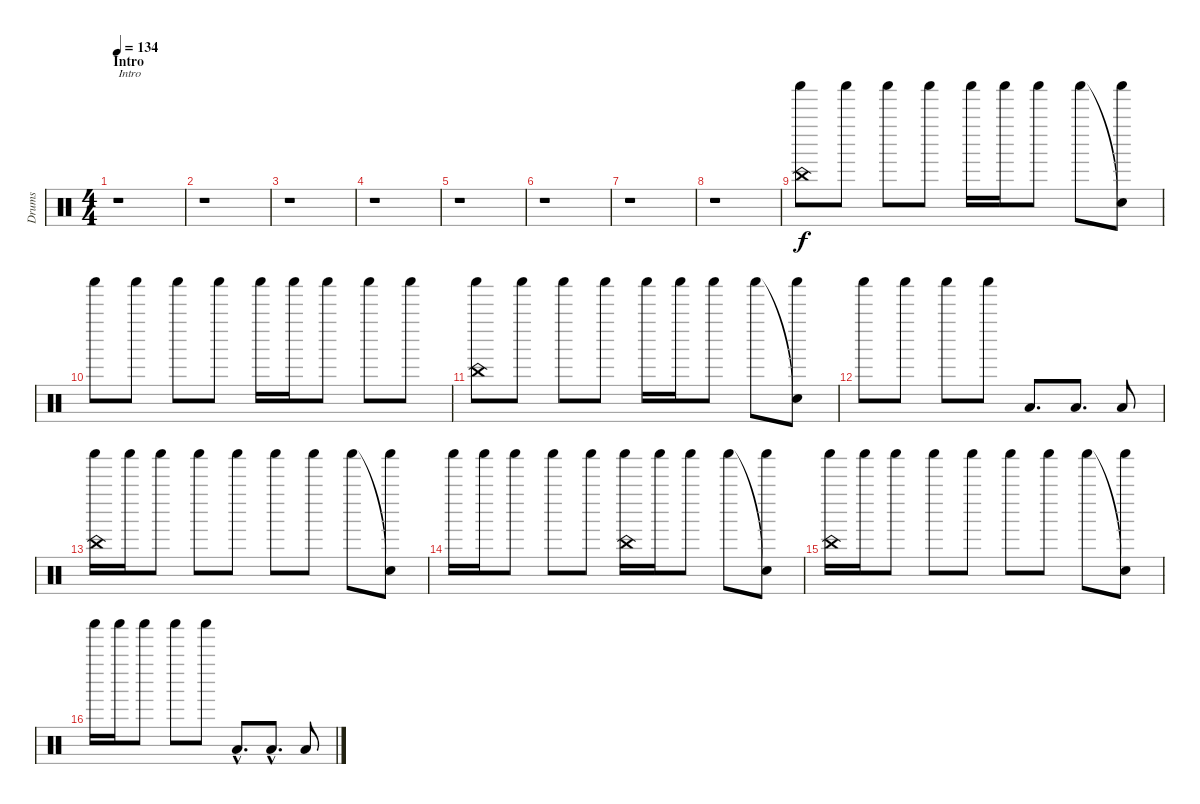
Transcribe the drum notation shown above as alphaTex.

\track ("Drums" "Drums") {instrument percussion}
\staff {score}
\articulation defaults
\ts (4 4)
\section ("" "Intro")
\tempo 134
\clef neutral
\ks c
r.1{txt "Intro" dy f} |
r.1 |
r.1 |
r.1 |
r.1 |
r.1 |
r.1 |
r.1 |
("China (hit)" "Shaker (hit)").8 "Shaker (hit)".8 "Shaker (hit)".8 "Shaker (hit)".8 "Shaker (hit)".16 "Shaker (hit)".16 "Shaker (hit)".8 "Shaker (hit)".8 ("Snare (hit)"{t} "Shaker (hit)").8 |
"Shaker (hit)".8 "Shaker (hit)".8 "Shaker (hit)".8 "Shaker (hit)".8 "Shaker (hit)".16 "Shaker (hit)".16 "Shaker (hit)".8 "Shaker (hit)".8 "Shaker (hit)".8 |
("China (hit)" "Shaker (hit)").8 "Shaker (hit)".8 "Shaker (hit)".8 "Shaker (hit)".8 "Shaker (hit)".16 "Shaker (hit)".16 "Shaker (hit)".8 "Shaker (hit)".8 ("Snare (hit)"{t} "Shaker (hit)").8 |
"Shaker (hit)".8 "Shaker (hit)".8 "Shaker (hit)".8 "Shaker (hit)".8 "Low Floor Tom (hit)".8{d} "Low Floor Tom (hit)".8{d} "Low Floor Tom (hit)".8 |
("China (hit)" "Shaker (hit)").16 "Shaker (hit)".16 "Shaker (hit)".8 "Shaker (hit)".8 "Shaker (hit)".8 "Shaker (hit)".8 "Shaker (hit)".8 "Shaker (hit)".8 ("Snare (hit)"{t} "Shaker (hit)").8 |
"Shaker (hit)".16 "Shaker (hit)".16 "Shaker (hit)".8 "Shaker (hit)".8 "Shaker (hit)".8 ("China (hit)" "Shaker (hit)").16 "Shaker (hit)".16 "Shaker (hit)".8 "Shaker (hit)".8 ("Snare (hit)"{t} "Shaker (hit)").8 |
("China (hit)" "Shaker (hit)").16 "Shaker (hit)".16 "Shaker (hit)".8 "Shaker (hit)".8 "Shaker (hit)".8 "Shaker (hit)".8 "Shaker (hit)".8 "Shaker (hit)".8 ("Snare (hit)"{t} "Shaker (hit)").8 |
"Shaker (hit)".16 "Shaker (hit)".16 "Shaker (hit)".8 "Shaker (hit)".8 "Shaker (hit)".8 "Low Floor Tom (hit)"{hac}.8{d} "Low Floor Tom (hit)"{hac}.8{d} "Low Floor Tom (hit)".8
